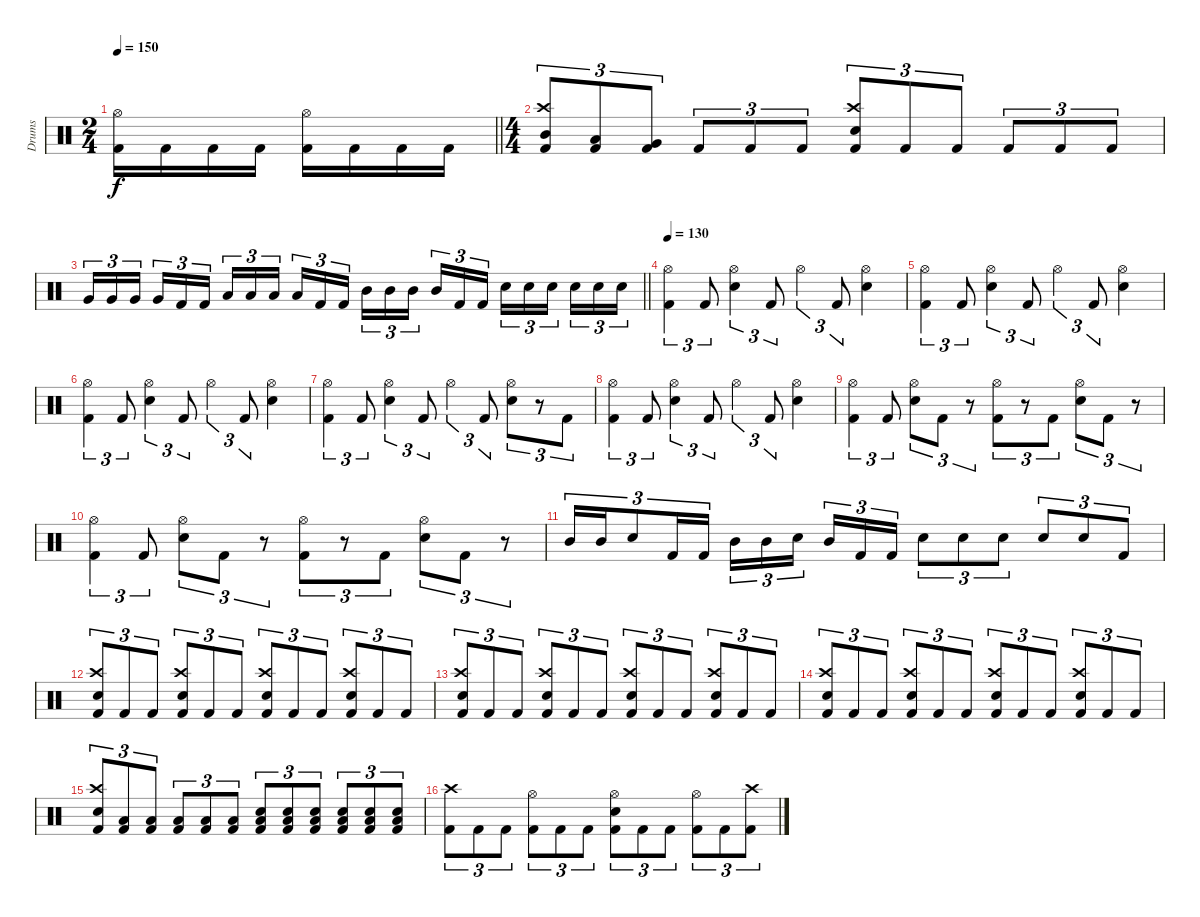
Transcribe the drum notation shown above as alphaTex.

\track ("Drums" "Drums") {instrument percussion}
\staff {score}
\articulation defaults
\ts (2 4)
\tempo 150
\clef neutral
\barLineRight lightlight
\ks c
("Hi-Hat (open)" "Kick (hit) 2").16{dy f} "Kick (hit) 2".16 "Kick (hit) 2".16 "Kick (hit) 2".16 ("Hi-Hat (open)" "Kick (hit) 2").16 "Kick (hit) 2".16 "Kick (hit) 2".16 "Kick (hit) 2".16 |
\ts (4 4)
("Crash high (hit)" "Mid Tom (hit)" "Kick (hit) 2").8{tu (3 2)} ("Low Tom (hit)" "Kick (hit) 2").8{tu (3 2)} ("Very Low Tom (hit)" "Kick (hit) 2").8{tu (3 2)} "Kick (hit) 2".8{tu (3 2)} "Kick (hit) 2".8{tu (3 2)} "Kick (hit) 2".8{tu (3 2)} ("Crash high (hit)" "Electric Snare (hit)" "Kick (hit) 2").8{tu (3 2)} "Kick (hit) 2".8{tu (3 2)} "Kick (hit) 2".8{tu (3 2)} "Kick (hit) 2".8{tu (3 2)} "Kick (hit) 2".8{tu (3 2)} "Kick (hit) 2".8{tu (3 2)} |
\barLineRight lightlight "Very Low Tom (hit)".16{tu (3 2)} "Very Low Tom (hit)".16{tu (3 2)} "Very Low Tom (hit)".16{tu (3 2) beam splitsecondary} "Very Low Tom (hit)".16{tu (3 2)} "Kick (hit) 2".16{tu (3 2)} "Kick (hit) 2".16{tu (3 2)} "Low Tom (hit)".16{tu (3 2)} "Low Tom (hit)".16{tu (3 2)} "Low Tom (hit)".16{tu (3 2) beam splitsecondary} "Low Tom (hit)".16{tu (3 2)} "Kick (hit) 2".16{tu (3 2)} "Kick (hit) 2".16{tu (3 2)} "Mid Tom (hit)".16{tu (3 2)} "Mid Tom (hit)".16{tu (3 2)} "Mid Tom (hit)".16{tu (3 2) beam splitsecondary} "Mid Tom (hit)".16{tu (3 2)} "Kick (hit) 2".16{tu (3 2)} "Kick (hit) 2".16{tu (3 2)} "Electric Snare (hit)".16{tu (3 2)} "Electric Snare (hit)".16{tu (3 2)} "Electric Snare (hit)".16{tu (3 2) beam splitsecondary} "Electric Snare (hit)".16{tu (3 2)} "Electric Snare (hit)".16{tu (3 2)} "Electric Snare (hit)".16{tu (3 2)}
|
\tempo 130
("Hi-Hat (open)" "Kick (hit) 2").4{tu (3 2)} "Kick (hit) 2".8{tu (3 2)} ("Hi-Hat (open)" "Electric Snare (hit)").4{tu (3 2)} "Kick (hit) 2".8{tu (3 2)} "Hi-Hat (open)".4{tu (3 2)} "Kick (hit) 2".8{tu (3 2)} ("Hi-Hat (open)" "Electric Snare (hit)").4 |
("Hi-Hat (open)" "Kick (hit) 2").4{tu (3 2)} "Kick (hit) 2".8{tu (3 2)} ("Hi-Hat (open)" "Electric Snare (hit)").4{tu (3 2)} "Kick (hit) 2".8{tu (3 2)} "Hi-Hat (open)".4{tu (3 2)} "Kick (hit) 2".8{tu (3 2)} ("Hi-Hat (open)" "Electric Snare (hit)").4 |
("Hi-Hat (open)" "Kick (hit) 2").4{tu (3 2)} "Kick (hit) 2".8{tu (3 2)} ("Hi-Hat (open)" "Electric Snare (hit)").4{tu (3 2)} "Kick (hit) 2".8{tu (3 2)} "Hi-Hat (open)".4{tu (3 2)} "Kick (hit) 2".8{tu (3 2)} ("Hi-Hat (open)" "Electric Snare (hit)").4 |
("Hi-Hat (open)" "Kick (hit) 2").4{tu (3 2)} "Kick (hit) 2".8{tu (3 2)} ("Hi-Hat (open)" "Electric Snare (hit)").4{tu (3 2)} "Kick (hit) 2".8{tu (3 2)} "Hi-Hat (open)".4{tu (3 2)} "Kick (hit) 2".8{tu (3 2)} ("Hi-Hat (open)" "Electric Snare (hit)").8{tu (3 2)} r.8{tu (3 2)} "Kick (hit) 2".8{tu (3 2)} |
("Hi-Hat (open)" "Kick (hit) 2").4{tu (3 2)} "Kick (hit) 2".8{tu (3 2)} ("Hi-Hat (open)" "Electric Snare (hit)").4{tu (3 2)} "Kick (hit) 2".8{tu (3 2)} "Hi-Hat (open)".4{tu (3 2)} "Kick (hit) 2".8{tu (3 2)} ("Hi-Hat (open)" "Electric Snare (hit)").4 |
("Hi-Hat (open)" "Kick (hit) 2").4{tu (3 2)} "Kick (hit) 2".8{tu (3 2)} ("Hi-Hat (open)" "Electric Snare (hit)").8{tu (3 2)} "Kick (hit) 2".8{tu (3 2)} r.8{tu (3 2)} ("Hi-Hat (open)" "Kick (hit) 2").8{tu (3 2)} r.8{tu (3 2)} "Kick (hit) 2".8{tu (3 2)} ("Hi-Hat (open)" "Electric Snare (hit)").8{tu (3 2)} "Kick (hit) 2".8{tu (3 2)} r.8{tu (3 2)} |
("Hi-Hat (open)" "Kick (hit) 2").4{tu (3 2)} "Kick (hit) 2".8{tu (3 2)} ("Hi-Hat (open)" "Electric Snare (hit)").8{tu (3 2)} "Kick (hit) 2".8{tu (3 2)} r.8{tu (3 2)} ("Hi-Hat (open)" "Kick (hit) 2").8{tu (3 2)} r.8{tu (3 2)} "Kick (hit) 2".8{tu (3 2)} ("Hi-Hat (open)" "Electric Snare (hit)").8{tu (3 2)} "Kick (hit) 2".8{tu (3 2)} r.8{tu (3 2)} |
"Mid Tom (hit)".16{tu (3 2)} "Mid Tom (hit)".16{tu (3 2)} "Electric Snare (hit)".8{tu (3 2)} "Kick (hit) 2".16{tu (3 2)} "Kick (hit) 2".16{tu (3 2)} "Mid Tom (hit)".16{tu (3 2)} "Mid Tom (hit)".16{tu (3 2)} "Electric Snare (hit)".16{tu (3 2) beam splitsecondary} "Mid Tom (hit)".16{tu (3 2)} "Kick (hit) 2".16{tu (3 2)} "Kick (hit) 2".16{tu (3 2)} "Electric Snare (hit)".8{tu (3 2)} "Electric Snare (hit)".8{tu (3 2)} "Electric Snare (hit)".8{tu (3 2)} "Electric Snare (hit)".8{tu (3 2)} "Electric Snare (hit)".8{tu (3 2)} "Kick (hit) 2".8{tu (3 2)} |
("Crash high (hit)" "Electric Snare (hit)" "Kick (hit) 2").8{tu (3 2)} "Kick (hit) 2".8{tu (3 2)} "Kick (hit) 2".8{tu (3 2)} ("Crash high (hit)" "Electric Snare (hit)" "Kick (hit) 2").8{tu (3 2)} "Kick (hit) 2".8{tu (3 2)} "Kick (hit) 2".8{tu (3 2)} ("Crash high (hit)" "Electric Snare (hit)" "Kick (hit) 2").8{tu (3 2)} "Kick (hit) 2".8{tu (3 2)} "Kick (hit) 2".8{tu (3 2)} ("Crash high (hit)" "Electric Snare (hit)" "Kick (hit) 2").8{tu (3 2)} "Kick (hit) 2".8{tu (3 2)} "Kick (hit) 2".8{tu (3 2)} |
("Crash high (hit)" "Electric Snare (hit)" "Kick (hit) 2").8{tu (3 2)} "Kick (hit) 2".8{tu (3 2)} "Kick (hit) 2".8{tu (3 2)} ("Crash high (hit)" "Electric Snare (hit)" "Kick (hit) 2").8{tu (3 2)} "Kick (hit) 2".8{tu (3 2)} "Kick (hit) 2".8{tu (3 2)} ("Crash high (hit)" "Electric Snare (hit)" "Kick (hit) 2").8{tu (3 2)} "Kick (hit) 2".8{tu (3 2)} "Kick (hit) 2".8{tu (3 2)} ("Crash high (hit)" "Electric Snare (hit)" "Kick (hit) 2").8{tu (3 2)} "Kick (hit) 2".8{tu (3 2)} "Kick (hit) 2".8{tu (3 2)} |
("Crash high (hit)" "Electric Snare (hit)" "Kick (hit) 2").8{tu (3 2)} "Kick (hit) 2".8{tu (3 2)} "Kick (hit) 2".8{tu (3 2)} ("Crash high (hit)" "Electric Snare (hit)" "Kick (hit) 2").8{tu (3 2)} "Kick (hit) 2".8{tu (3 2)} "Kick (hit) 2".8{tu (3 2)} ("Crash high (hit)" "Electric Snare (hit)" "Kick (hit) 2").8{tu (3 2)} "Kick (hit) 2".8{tu (3 2)} "Kick (hit) 2".8{tu (3 2)} ("Crash high (hit)" "Electric Snare (hit)" "Kick (hit) 2").8{tu (3 2)} "Kick (hit) 2".8{tu (3 2)} "Kick (hit) 2".8{tu (3 2)} |
("Crash high (hit)" "Electric Snare (hit)" "Kick (hit) 2").8{tu (3 2)} ("Low Tom (hit)" "Kick (hit) 2").8{tu (3 2)} ("Low Tom (hit)" "Kick (hit) 2").8{tu (3 2)} ("Low Tom (hit)" "Kick (hit) 2").8{tu (3 2)} ("Low Tom (hit)" "Kick (hit) 2").8{tu (3 2)} ("Low Tom (hit)" "Kick (hit) 2").8{tu (3 2)} ("Low Tom (hit)" "Electric Snare (hit)" "Kick (hit) 2").8{tu (3 2)} ("Low Tom (hit)" "Electric Snare (hit)" "Kick (hit) 2").8{tu (3 2)} ("Low Tom (hit)" "Electric Snare (hit)" "Kick (hit) 2").8{tu (3 2)} ("Low Tom (hit)" "Electric Snare (hit)" "Kick (hit) 2").8{tu (3 2)} ("Low Tom (hit)" "Electric Snare (hit)" "Kick (hit) 2").8{tu (3 2)} ("Low Tom (hit)" "Electric Snare (hit)" "Kick (hit) 2").8{tu (3 2)} |
("Crash high (hit)" "Kick (hit) 2").8{tu (3 2)} "Kick (hit) 2".8{tu (3 2)} "Kick (hit) 2".8{tu (3 2)} ("Hi-Hat (open)" "Kick (hit) 2").8{tu (3 2)} "Kick (hit) 2".8{tu (3 2)} "Kick (hit) 2".8{tu (3 2)} ("Hi-Hat (open)" "Electric Snare (hit)" "Kick (hit) 2").8{tu (3 2)} "Kick (hit) 2".8{tu (3 2)} "Kick (hit) 2".8{tu (3 2)} ("Hi-Hat (open)" "Kick (hit) 2").8{tu (3 2)} "Kick (hit) 2".8{tu (3 2)} ("Crash high (hit)" "Kick (hit) 2").8{tu (3 2)}
